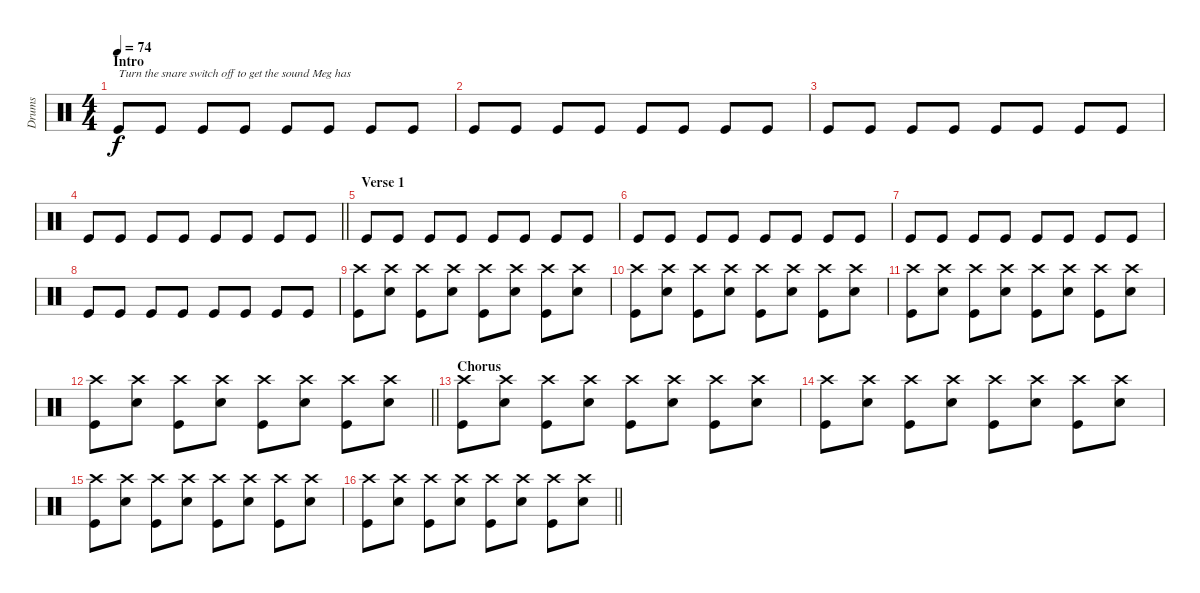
\track ("Drums" "Drums") {instrument percussion}
\staff {score}
\articulation defaults
\ts (4 4)
\section ("" "Intro")
\tempo 74
\clef neutral
\ks c "Kick (hit)".8{txt "Turn the snare switch off to get the sound Meg has" dy f} "Kick (hit)".8 "Kick (hit)".8 "Kick (hit)".8 "Kick (hit)".8 "Kick (hit)".8 "Kick (hit)".8 "Kick (hit)".8
|
"Kick (hit)".8 "Kick (hit)".8 "Kick (hit)".8 "Kick (hit)".8 "Kick (hit)".8 "Kick (hit)".8 "Kick (hit)".8 "Kick (hit)".8 |
"Kick (hit)".8 "Kick (hit)".8 "Kick (hit)".8 "Kick (hit)".8 "Kick (hit)".8 "Kick (hit)".8 "Kick (hit)".8 "Kick (hit)".8 |
\barLineRight lightlight "Kick (hit)".8 "Kick (hit)".8 "Kick (hit)".8 "Kick (hit)".8 "Kick (hit)".8 "Kick (hit)".8 "Kick (hit)".8 "Kick (hit)".8
|
\section ("" "Verse 1")
"Kick (hit)".8 "Kick (hit)".8 "Kick (hit)".8 "Kick (hit)".8 "Kick (hit)".8 "Kick (hit)".8 "Kick (hit)".8 "Kick (hit)".8 |
"Kick (hit)".8 "Kick (hit)".8 "Kick (hit)".8 "Kick (hit)".8 "Kick (hit)".8 "Kick (hit)".8 "Kick (hit)".8 "Kick (hit)".8 |
"Kick (hit)".8 "Kick (hit)".8 "Kick (hit)".8 "Kick (hit)".8 "Kick (hit)".8 "Kick (hit)".8 "Kick (hit)".8 "Kick (hit)".8 |
"Kick (hit)".8 "Kick (hit)".8 "Kick (hit)".8 "Kick (hit)".8 "Kick (hit)".8 "Kick (hit)".8 "Kick (hit)".8 "Kick (hit)".8 |
("Crash high (hit)" "Kick (hit)").8 ("Crash high (hit)" "Snare (hit) 2").8 ("Crash high (hit)" "Kick (hit)").8 ("Crash high (hit)" "Snare (hit) 2").8 ("Crash high (hit)" "Kick (hit)").8 ("Crash high (hit)" "Snare (hit) 2").8 ("Crash high (hit)" "Kick (hit)").8 ("Crash high (hit)" "Snare (hit) 2").8 |
("Crash high (hit)" "Kick (hit)").8 ("Crash high (hit)" "Snare (hit) 2").8 ("Crash high (hit)" "Kick (hit)").8 ("Crash high (hit)" "Snare (hit) 2").8 ("Crash high (hit)" "Kick (hit)").8 ("Crash high (hit)" "Snare (hit) 2").8 ("Crash high (hit)" "Kick (hit)").8 ("Crash high (hit)" "Snare (hit) 2").8 |
("Crash high (hit)" "Kick (hit)").8 ("Crash high (hit)" "Snare (hit) 2").8 ("Crash high (hit)" "Kick (hit)").8 ("Crash high (hit)" "Snare (hit) 2").8 ("Crash high (hit)" "Kick (hit)").8 ("Crash high (hit)" "Snare (hit) 2").8 ("Crash high (hit)" "Kick (hit)").8 ("Crash high (hit)" "Snare (hit) 2").8 |
\barLineRight lightlight
("Crash high (hit)" "Kick (hit)").8 ("Crash high (hit)" "Snare (hit) 2").8 ("Crash high (hit)" "Kick (hit)").8 ("Crash high (hit)" "Snare (hit) 2").8 ("Crash high (hit)" "Kick (hit)").8 ("Crash high (hit)" "Snare (hit) 2").8 ("Crash high (hit)" "Kick (hit)").8 ("Crash high (hit)" "Snare (hit) 2").8 |
\section ("" "Chorus")
("Crash high (hit)" "Kick (hit)").8 ("Crash high (hit)" "Snare (hit) 2").8 ("Crash high (hit)" "Kick (hit)").8 ("Crash high (hit)" "Snare (hit) 2").8 ("Crash high (hit)" "Kick (hit)").8 ("Crash high (hit)" "Snare (hit) 2").8 ("Crash high (hit)" "Kick (hit)").8 ("Crash high (hit)" "Snare (hit) 2").8 |
("Crash high (hit)" "Kick (hit)").8 ("Crash high (hit)" "Snare (hit) 2").8 ("Crash high (hit)" "Kick (hit)").8 ("Crash high (hit)" "Snare (hit) 2").8 ("Crash high (hit)" "Kick (hit)").8 ("Crash high (hit)" "Snare (hit) 2").8 ("Crash high (hit)" "Kick (hit)").8 ("Crash high (hit)" "Snare (hit) 2").8 |
("Crash high (hit)" "Kick (hit)").8 ("Crash high (hit)" "Snare (hit) 2").8 ("Crash high (hit)" "Kick (hit)").8 ("Crash high (hit)" "Snare (hit) 2").8 ("Crash high (hit)" "Kick (hit)").8 ("Crash high (hit)" "Snare (hit) 2").8 ("Crash high (hit)" "Kick (hit)").8 ("Crash high (hit)" "Snare (hit) 2").8 |
\barLineRight lightlight
("Crash high (hit)" "Kick (hit)").8 ("Crash high (hit)" "Snare (hit) 2").8 ("Crash high (hit)" "Kick (hit)").8 ("Crash high (hit)" "Snare (hit) 2").8 ("Crash high (hit)" "Kick (hit)").8 ("Crash high (hit)" "Snare (hit) 2").8 ("Crash high (hit)" "Kick (hit)").8 ("Crash high (hit)" "Snare (hit) 2").8
